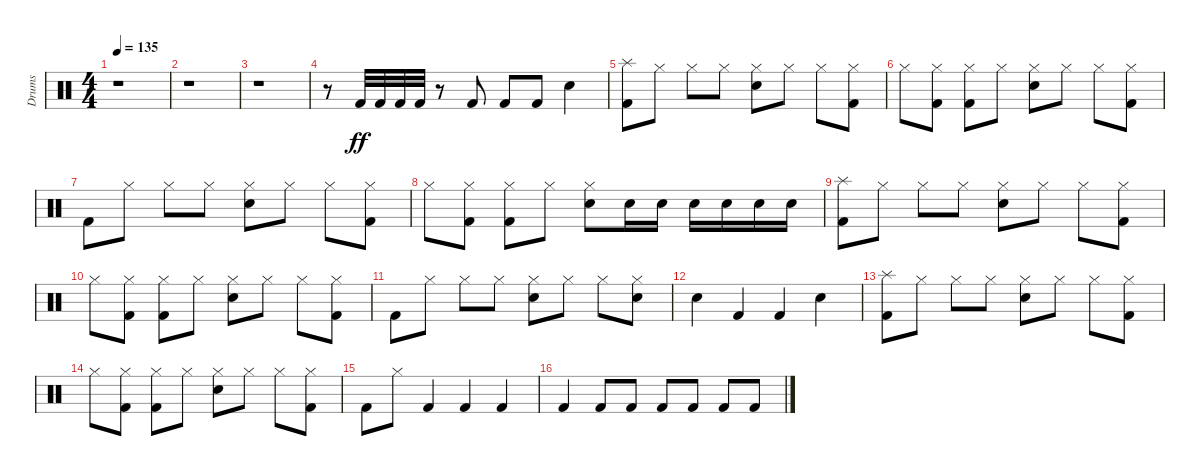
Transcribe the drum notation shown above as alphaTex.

\track ("Drums" "Drums") {instrument percussion}
\staff {score}
\articulation defaults
\ts (4 4)
\tempo 135
\clef neutral
\ks c
r.1{dy ff} |
r.1 |
r.1 |
r.8 "Kick (hit) 2".32 "Kick (hit) 2".32 "Kick (hit) 2".32 "Kick (hit) 2".32 r.8 "Kick (hit) 2".8 "Kick (hit) 2".8 "Kick (hit) 2".8 "Electric Snare (hit)".4 |
("Kick (hit) 2" "Splash (hit)").8 "Hi-Hat (closed)".8 "Hi-Hat (closed)".8 "Hi-Hat (closed)".8 ("Electric Snare (hit)" "Hi-Hat (closed)").8 "Hi-Hat (closed)".8 "Hi-Hat (closed)".8 ("Kick (hit) 2" "Hi-Hat (closed)").8 |
"Hi-Hat (closed)".8 ("Kick (hit) 2" "Hi-Hat (closed)").8 ("Kick (hit) 2" "Hi-Hat (closed)").8 "Hi-Hat (closed)".8 ("Electric Snare (hit)" "Hi-Hat (closed)").8 "Hi-Hat (closed)".8 "Hi-Hat (closed)".8 ("Kick (hit) 2" "Hi-Hat (closed)").8 |
"Kick (hit) 2".8 "Hi-Hat (closed)".8 "Hi-Hat (closed)".8 "Hi-Hat (closed)".8 ("Electric Snare (hit)" "Hi-Hat (closed)").8 "Hi-Hat (closed)".8 "Hi-Hat (closed)".8 ("Kick (hit) 2" "Hi-Hat (closed)").8 |
"Hi-Hat (closed)".8 ("Kick (hit) 2" "Hi-Hat (closed)").8 ("Kick (hit) 2" "Hi-Hat (closed)").8 "Hi-Hat (closed)".8 ("Electric Snare (hit)" "Hi-Hat (closed)").8 "Electric Snare (hit)".16 "Electric Snare (hit)".16 "Electric Snare (hit)".16 "Electric Snare (hit)".16 "Electric Snare (hit)".16 "Electric Snare (hit)".16 |
("Kick (hit) 2" "Splash (hit)").8 "Hi-Hat (closed)".8 "Hi-Hat (closed)".8 "Hi-Hat (closed)".8 ("Electric Snare (hit)" "Hi-Hat (closed)").8 "Hi-Hat (closed)".8 "Hi-Hat (closed)".8 ("Kick (hit) 2" "Hi-Hat (closed)").8 |
"Hi-Hat (closed)".8 ("Kick (hit) 2" "Hi-Hat (closed)").8 ("Kick (hit) 2" "Hi-Hat (closed)").8 "Hi-Hat (closed)".8 ("Electric Snare (hit)" "Hi-Hat (closed)").8 "Hi-Hat (closed)".8 "Hi-Hat (closed)".8 ("Kick (hit) 2" "Hi-Hat (closed)").8 |
"Kick (hit) 2".8 "Hi-Hat (closed)".8 "Hi-Hat (closed)".8 "Hi-Hat (closed)".8 ("Electric Snare (hit)" "Hi-Hat (closed)").8 "Hi-Hat (closed)".8 "Hi-Hat (closed)".8 ("Electric Snare (hit)" "Hi-Hat (closed)").8 |
"Electric Snare (hit)".4 "Kick (hit) 2".4 "Kick (hit) 2".4 "Electric Snare (hit)".4 |
("Kick (hit) 2" "Splash (hit)").8 "Hi-Hat (closed)".8 "Hi-Hat (closed)".8 "Hi-Hat (closed)".8 ("Electric Snare (hit)" "Hi-Hat (closed)").8 "Hi-Hat (closed)".8 "Hi-Hat (closed)".8 ("Kick (hit) 2" "Hi-Hat (closed)").8 |
"Hi-Hat (closed)".8 ("Kick (hit) 2" "Hi-Hat (closed)").8 ("Kick (hit) 2" "Hi-Hat (closed)").8 "Hi-Hat (closed)".8 ("Electric Snare (hit)" "Hi-Hat (closed)").8 "Hi-Hat (closed)".8 "Hi-Hat (closed)".8 ("Kick (hit) 2" "Hi-Hat (closed)").8 |
"Kick (hit) 2".8 "Hi-Hat (closed)".8 "Kick (hit) 2".4 "Kick (hit) 2".4 "Kick (hit) 2".4 |
"Kick (hit) 2".4 "Kick (hit) 2".8 "Kick (hit) 2".8 "Kick (hit) 2".8 "Kick (hit) 2".8 "Kick (hit) 2".8 "Kick (hit) 2".8
